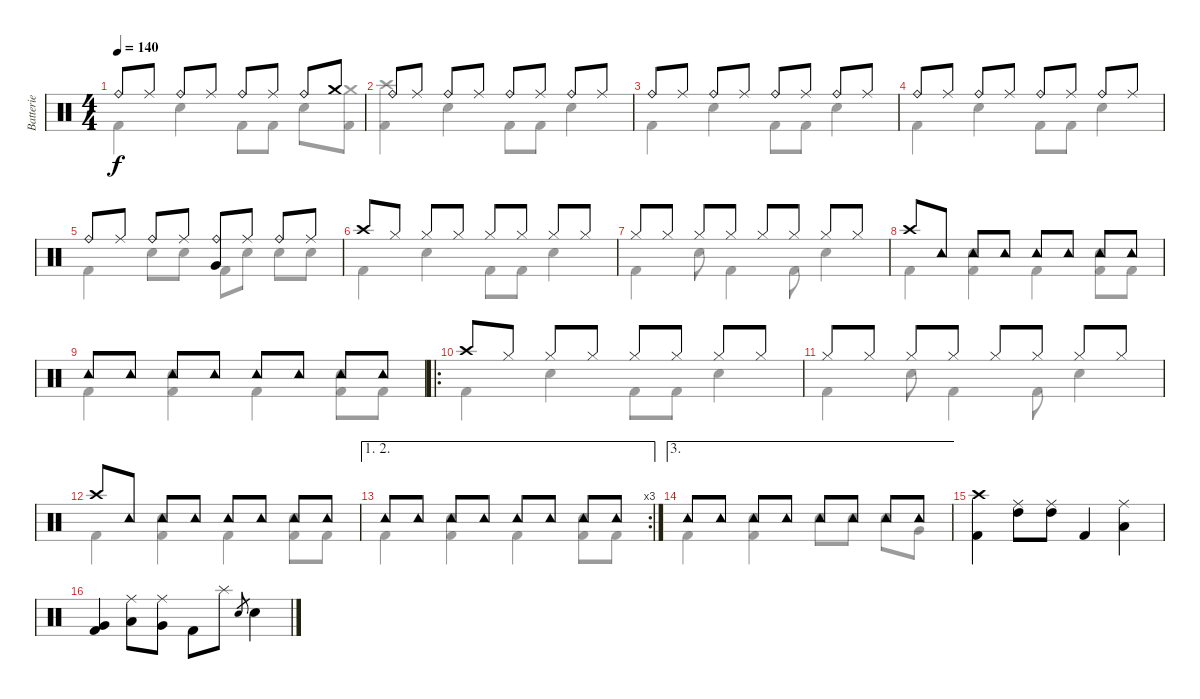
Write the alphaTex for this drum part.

\track ("Batterie" "Batterie") {instrument percussion}
\staff {score}
\articulation defaults
\voice
\ts (4 4)
\tempo 140
\clef neutral
\ks c "Ride (bell)".8{dy f} "Ride (middle)".8 "Ride (bell)".8 "Ride (middle)".8 "Ride (bell)".8 "Ride (middle)".8 "Ride (bell)".8 "Crash medium (hit)".8
|
"Ride (bell)".8 "Ride (middle)".8 "Ride (bell)".8 "Ride (middle)".8 "Ride (bell)".8 "Ride (middle)".8 "Ride (bell)".8 "Ride (middle)".8 |
"Ride (bell)".8 "Ride (middle)".8 "Ride (bell)".8 "Ride (middle)".8 "Ride (bell)".8 "Ride (middle)".8 "Ride (bell)".8 "Ride (middle)".8 |
"Ride (bell)".8 "Ride (middle)".8 "Ride (bell)".8 "Ride (middle)".8 "Ride (bell)".8 "Ride (middle)".8 "Ride (bell)".8 "Ride (middle)".8 |
"Ride (bell)".8 "Ride (middle)".8 "Ride (bell)".8 "Ride (middle)".8 ("Ride (bell)" "Very Low Tom (hit)").8 "Ride (middle)".8 "Ride (bell)".8 "Ride (middle)".8 |
"Crash high (hit)".8 "Hi-Hat (closed)".8 "Hi-Hat (closed)".8 "Hi-Hat (closed)".8 "Hi-Hat (closed)".8 "Hi-Hat (closed)".8 "Hi-Hat (closed)".8 "Hi-Hat (closed)".8 |
"Hi-Hat (closed)".8 "Hi-Hat (closed)".8 "Hi-Hat (closed)".8 "Hi-Hat (closed)".8 "Hi-Hat (closed)".8 "Hi-Hat (closed)".8 "Hi-Hat (closed)".8 "Hi-Hat (closed)".8 |
"Crash high (hit)".8 "Tambourine (hit)".8 "Tambourine (hit)".8 "Tambourine (hit)".8 "Tambourine (hit)".8 "Tambourine (hit)".8 "Tambourine (hit)".8 "Tambourine (hit)".8 |
"Tambourine (hit)".8 "Tambourine (hit)".8 "Tambourine (hit)".8 "Tambourine (hit)".8 "Tambourine (hit)".8 "Tambourine (hit)".8 "Tambourine (hit)".8 "Tambourine (hit)".8 |
\ro "Crash high (hit)".8 "Hi-Hat (closed)".8 "Hi-Hat (closed)".8 "Hi-Hat (closed)".8 "Hi-Hat (closed)".8 "Hi-Hat (closed)".8 "Hi-Hat (closed)".8 "Hi-Hat (closed)".8
|
"Hi-Hat (closed)".8 "Hi-Hat (closed)".8 "Hi-Hat (closed)".8 "Hi-Hat (closed)".8 "Hi-Hat (closed)".8 "Hi-Hat (closed)".8 "Hi-Hat (closed)".8 "Hi-Hat (closed)".8 |
"Crash high (hit)".8 "Tambourine (hit)".8 "Tambourine (hit)".8 "Tambourine (hit)".8 "Tambourine (hit)".8 "Tambourine (hit)".8 "Tambourine (hit)".8 "Tambourine (hit)".8 |
\ae (1 2)
\rc 3 "Tambourine (hit)".8 "Tambourine (hit)".8 "Tambourine (hit)".8 "Tambourine (hit)".8 "Tambourine (hit)".8 "Tambourine (hit)".8 "Tambourine (hit)".8 "Tambourine (hit)".8
|
\ae 3 "Tambourine (hit)".8 "Tambourine (hit)".8 "Tambourine (hit)".8 "Tambourine (hit)".8 "Tambourine (hit)".8 "Tambourine (hit)".8 "Tambourine (hit)".8 "Tambourine (hit)".8
|
("Crash high (hit)" "Kick (hit) 2").4 ("Ride (middle)" "High Tom (hit)").8 ("Ride (middle)" "High Tom (hit)").8 "Kick (hit) 2".4 ("Ride (middle)" "Low Tom (hit)").4 |
("Very Low Tom (hit)" "Kick (hit) 2").4 ("Ride (middle)" "Low Tom (hit)").8 ("Ride (middle)" "Very Low Tom (hit)").8 "Kick (hit) 2".8 "Splash (hit)".8 "Electric Snare (hit)".8{gr} "Electric Snare (hit)".4
\voice
\clef neutral
\ottava regular
\simile none
\ks c "Kick (hit) 2".4{dy f} "Electric Snare (hit)".4 "Kick (hit) 2".8 "Kick (hit) 2".8 "Electric Snare (hit)".8
("Crash medium (hit)" "Kick (hit) 2").8 |
("Crash high (hit)" "Kick (hit) 2").4 "Electric Snare (hit)".4 "Kick (hit) 2".8 "Kick (hit) 2".8 "Electric Snare (hit)".4 |
"Kick (hit) 2".4 "Electric Snare (hit)".4 "Kick (hit) 2".8 "Kick (hit) 2".8 "Electric Snare (hit)".4 |
"Kick (hit) 2".4 "Electric Snare (hit)".4 "Kick (hit) 2".8 "Kick (hit) 2".8 "Electric Snare (hit)".4 |
"Kick (hit) 2".4 "Electric Snare (hit)".8 "Electric Snare (hit)".8 "Kick (hit) 2".8 "Electric Snare (hit)".8 "Electric Snare (hit)".8 "Electric Snare (hit)".8 |
"Kick (hit) 2".4 "Electric Snare (hit)".4 "Kick (hit) 2".8 "Kick (hit) 2".8 "Electric Snare (hit)".4 |
"Kick (hit) 2".4 "Electric Snare (hit)".8 "Kick (hit) 2".4 "Kick (hit) 2".8 "Electric Snare (hit)".4 |
"Kick (hit) 2".4 ("Electric Snare (hit)" "Kick (hit) 2").4 "Kick (hit) 2".4 ("Electric Snare (hit)" "Kick (hit) 2").8 "Kick (hit) 2".8 |
"Kick (hit) 2".4 ("Electric Snare (hit)" "Kick (hit) 2").4 "Kick (hit) 2".4 ("Electric Snare (hit)" "Kick (hit) 2").8 "Kick (hit) 2".8 |
"Kick (hit) 2".4 "Electric Snare (hit)".4 "Kick (hit) 2".8 "Kick (hit) 2".8 "Electric Snare (hit)".4 |
"Kick (hit) 2".4 "Electric Snare (hit)".8 "Kick (hit) 2".4 "Kick (hit) 2".8 "Electric Snare (hit)".4 |
"Kick (hit) 2".4 ("Electric Snare (hit)" "Kick (hit) 2").4 "Kick (hit) 2".4 ("Electric Snare (hit)" "Kick (hit) 2").8 "Kick (hit) 2".8 |
"Kick (hit) 2".4 ("Electric Snare (hit)" "Kick (hit) 2").4 "Kick (hit) 2".4 ("Electric Snare (hit)" "Kick (hit) 2").8 "Kick (hit) 2".8 |
"Kick (hit) 2".4 ("Electric Snare (hit)" "Kick (hit) 2").4 "Electric Snare (hit)".8 "Electric Snare (hit)".8 "Electric Snare (hit)".8 "Very Low Tom (hit)".8 |
|
